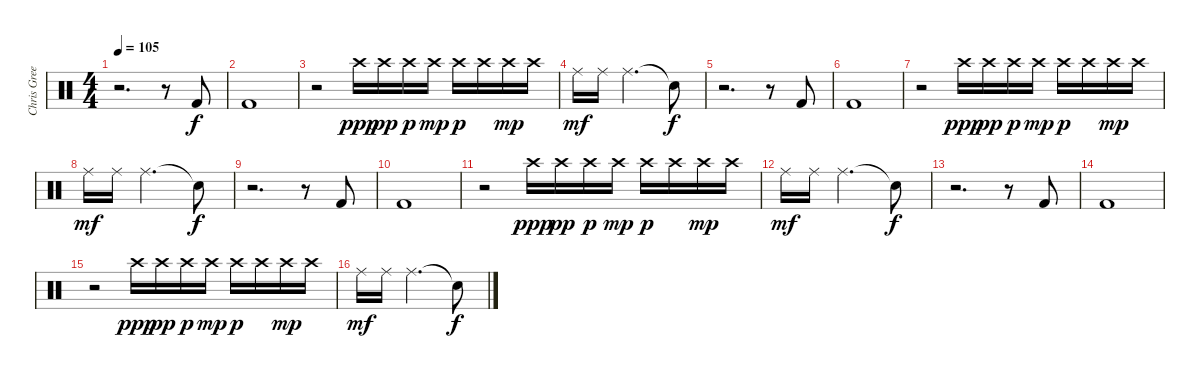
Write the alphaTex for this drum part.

\track ("Chris Greene" "Chris Gree") {instrument percussion}
\staff {score}
\articulation defaults
\ts (4 4)
\tempo 105
\clef neutral
\ks c
r.2{d dy f} r.8 "Kick (hit) 2".8 |
"Kick (hit) 2".1 |
r.2 "Crash high (hit)".16{dy ppp} "Crash high (hit)".16{dy pp} "Crash high (hit)".16{dy p} "Crash high (hit)".16{dy mp} "Crash high (hit)".16{dy p} "Crash high (hit)".16 "Crash high (hit)".16{dy mp} "Crash high (hit)".16 |
"Ride (middle)".16{dy mf} "Ride (middle)".16 "Ride (middle)".2{d} "Snare (hit)"{t}.8{dy f} |
r.2{d} r.8 "Kick (hit) 2".8 |
"Kick (hit) 2".1 |
r.2 "Crash high (hit)".16{dy ppp} "Crash high (hit)".16{dy pp} "Crash high (hit)".16{dy p} "Crash high (hit)".16{dy mp} "Crash high (hit)".16{dy p} "Crash high (hit)".16 "Crash high (hit)".16{dy mp} "Crash high (hit)".16 |
"Ride (middle)".16{dy mf} "Ride (middle)".16 "Ride (middle)".2{d} "Snare (hit)"{t}.8{dy f} |
r.2{d} r.8 "Kick (hit) 2".8 |
"Kick (hit) 2".1 |
r.2 "Crash high (hit)".16{dy ppp} "Crash high (hit)".16{dy pp} "Crash high (hit)".16{dy p} "Crash high (hit)".16{dy mp} "Crash high (hit)".16{dy p} "Crash high (hit)".16 "Crash high (hit)".16{dy mp} "Crash high (hit)".16 |
"Ride (middle)".16{dy mf} "Ride (middle)".16 "Ride (middle)".2{d} "Snare (hit)"{t}.8{dy f} |
r.2{d} r.8 "Kick (hit) 2".8 |
"Kick (hit) 2".1 |
r.2 "Crash high (hit)".16{dy ppp} "Crash high (hit)".16{dy pp} "Crash high (hit)".16{dy p} "Crash high (hit)".16{dy mp} "Crash high (hit)".16{dy p} "Crash high (hit)".16 "Crash high (hit)".16{dy mp} "Crash high (hit)".16 |
"Ride (middle)".16{dy mf} "Ride (middle)".16 "Ride (middle)".2{d} "Snare (hit)"{t}.8{dy f}
